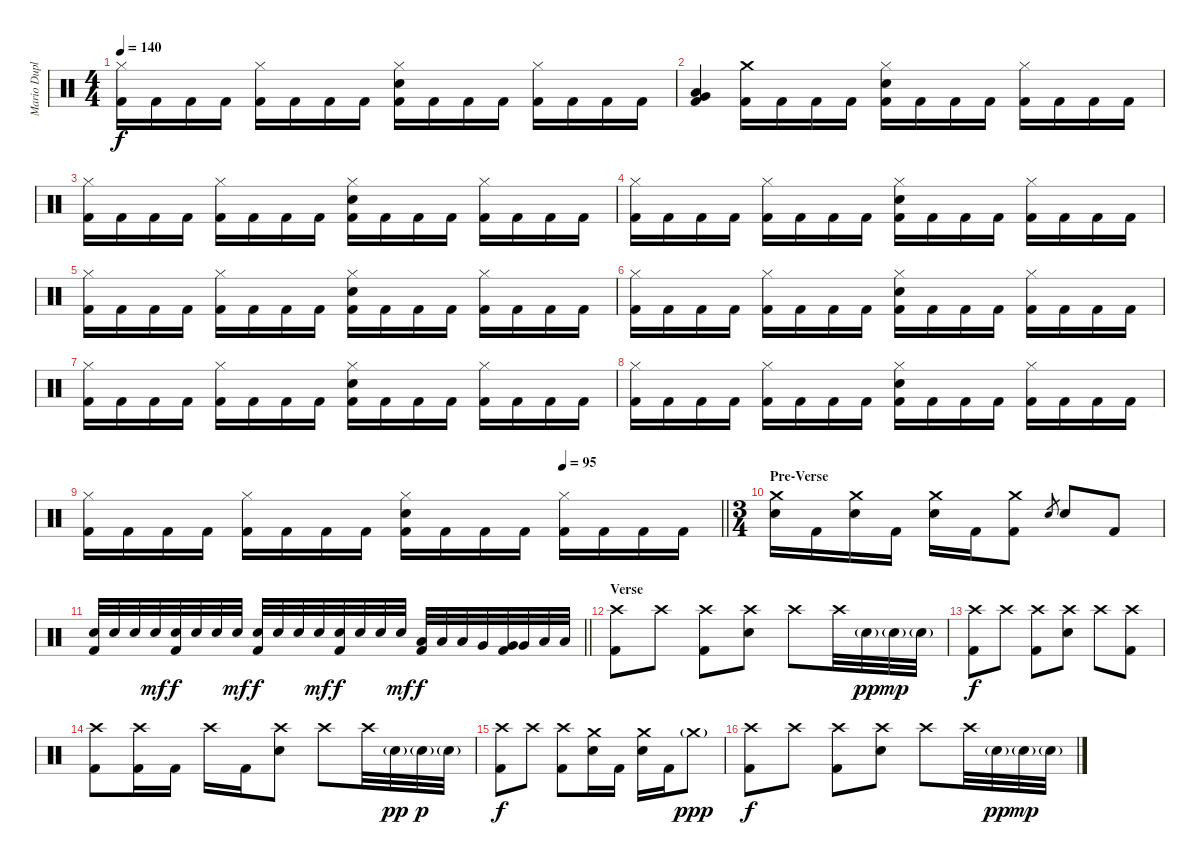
\track ("Mario Duplantier" "Mario Dupl") {instrument percussion}
\staff {score}
\articulation defaults
\ts (4 4)
\tempo 140
\clef neutral
\ks c
("Hi-Hat (closed)" "Kick (hit) 2").16{dy f} "Kick (hit) 2".16 "Kick (hit) 2".16 "Kick (hit) 2".16 ("Hi-Hat (closed)" "Kick (hit) 2").16 "Kick (hit) 2".16 "Kick (hit) 2".16 "Kick (hit) 2".16 ("Hi-Hat (closed)" "Snare (hit) 2" "Kick (hit) 2").16 "Kick (hit) 2".16 "Kick (hit) 2".16 "Kick (hit) 2".16 ("Hi-Hat (closed)" "Kick (hit) 2").16 "Kick (hit) 2".16 "Kick (hit) 2".16 "Kick (hit) 2".16 |
("Low Floor Tom (hit)" "Very Low Tom (hit)" "Kick (hit) 2").4 ("Crash medium (hit)" "Kick (hit) 2").16 "Kick (hit) 2".16 "Kick (hit) 2".16 "Kick (hit) 2".16 ("Hi-Hat (closed)" "Snare (hit) 2" "Kick (hit) 2").16 "Kick (hit) 2".16 "Kick (hit) 2".16 "Kick (hit) 2".16 ("Hi-Hat (closed)" "Kick (hit) 2").16 "Kick (hit) 2".16 "Kick (hit) 2".16 "Kick (hit) 2".16 |
("Hi-Hat (closed)" "Kick (hit) 2").16 "Kick (hit) 2".16 "Kick (hit) 2".16 "Kick (hit) 2".16 ("Hi-Hat (closed)" "Kick (hit) 2").16 "Kick (hit) 2".16 "Kick (hit) 2".16 "Kick (hit) 2".16 ("Hi-Hat (closed)" "Snare (hit) 2" "Kick (hit) 2").16 "Kick (hit) 2".16 "Kick (hit) 2".16 "Kick (hit) 2".16 ("Hi-Hat (closed)" "Kick (hit) 2").16 "Kick (hit) 2".16 "Kick (hit) 2".16 "Kick (hit) 2".16 |
("Hi-Hat (closed)" "Kick (hit) 2").16 "Kick (hit) 2".16 "Kick (hit) 2".16 "Kick (hit) 2".16 ("Hi-Hat (closed)" "Kick (hit) 2").16 "Kick (hit) 2".16 "Kick (hit) 2".16 "Kick (hit) 2".16 ("Hi-Hat (closed)" "Snare (hit) 2" "Kick (hit) 2").16 "Kick (hit) 2".16 "Kick (hit) 2".16 "Kick (hit) 2".16 ("Hi-Hat (closed)" "Kick (hit) 2").16 "Kick (hit) 2".16 "Kick (hit) 2".16 "Kick (hit) 2".16 |
("Hi-Hat (closed)" "Kick (hit) 2").16 "Kick (hit) 2".16 "Kick (hit) 2".16 "Kick (hit) 2".16 ("Hi-Hat (closed)" "Kick (hit) 2").16 "Kick (hit) 2".16 "Kick (hit) 2".16 "Kick (hit) 2".16 ("Hi-Hat (closed)" "Snare (hit) 2" "Kick (hit) 2").16 "Kick (hit) 2".16 "Kick (hit) 2".16 "Kick (hit) 2".16 ("Hi-Hat (closed)" "Kick (hit) 2").16 "Kick (hit) 2".16 "Kick (hit) 2".16 "Kick (hit) 2".16 |
("Hi-Hat (closed)" "Kick (hit) 2").16 "Kick (hit) 2".16 "Kick (hit) 2".16 "Kick (hit) 2".16 ("Hi-Hat (closed)" "Kick (hit) 2").16 "Kick (hit) 2".16 "Kick (hit) 2".16 "Kick (hit) 2".16 ("Hi-Hat (closed)" "Snare (hit) 2" "Kick (hit) 2").16 "Kick (hit) 2".16 "Kick (hit) 2".16 "Kick (hit) 2".16 ("Hi-Hat (closed)" "Kick (hit) 2").16 "Kick (hit) 2".16 "Kick (hit) 2".16 "Kick (hit) 2".16 |
("Hi-Hat (closed)" "Kick (hit) 2").16 "Kick (hit) 2".16 "Kick (hit) 2".16 "Kick (hit) 2".16 ("Hi-Hat (closed)" "Kick (hit) 2").16 "Kick (hit) 2".16 "Kick (hit) 2".16 "Kick (hit) 2".16 ("Hi-Hat (closed)" "Snare (hit) 2" "Kick (hit) 2").16 "Kick (hit) 2".16 "Kick (hit) 2".16 "Kick (hit) 2".16 ("Hi-Hat (closed)" "Kick (hit) 2").16 "Kick (hit) 2".16 "Kick (hit) 2".16 "Kick (hit) 2".16 |
("Hi-Hat (closed)" "Kick (hit) 2").16 "Kick (hit) 2".16 "Kick (hit) 2".16 "Kick (hit) 2".16 ("Hi-Hat (closed)" "Kick (hit) 2").16 "Kick (hit) 2".16 "Kick (hit) 2".16 "Kick (hit) 2".16 ("Hi-Hat (closed)" "Snare (hit) 2" "Kick (hit) 2").16 "Kick (hit) 2".16 "Kick (hit) 2".16 "Kick (hit) 2".16 ("Hi-Hat (closed)" "Kick (hit) 2").16 "Kick (hit) 2".16 "Kick (hit) 2".16 "Kick (hit) 2".16 |
\tempo (95 0.75)
\barLineRight lightlight
("Hi-Hat (closed)" "Kick (hit) 2").16 "Kick (hit) 2".16 "Kick (hit) 2".16 "Kick (hit) 2".16 ("Hi-Hat (closed)" "Kick (hit) 2").16 "Kick (hit) 2".16 "Kick (hit) 2".16 "Kick (hit) 2".16 ("Hi-Hat (closed)" "Snare (hit) 2" "Kick (hit) 2").16 "Kick (hit) 2".16 "Kick (hit) 2".16 "Kick (hit) 2".16 ("Hi-Hat (closed)" "Kick (hit) 2").16 "Kick (hit) 2".16 "Kick (hit) 2".16 "Kick (hit) 2".16 |
\ts (3 4)
\section ("" "Pre-Verse")
("Crash medium (hit)" "Snare (hit) 2").16 "Kick (hit) 2".16 ("Crash medium (hit)" "Snare (hit) 2").16 "Kick (hit) 2".16 ("Crash medium (hit)" "Snare (hit) 2").16 "Kick (hit) 2".16 ("Crash medium (hit)" "Kick (hit) 2").8 "Snare (hit) 2".8{gr} "Snare (hit) 2".8 "Kick (hit) 2".8 |
\barLineRight lightlight
("Snare (hit) 2" "Kick (hit) 2").32 "Snare (hit) 2".32 "Snare (hit) 2".32 "Snare (hit) 2".32{dy mf} ("Snare (hit) 2" "Kick (hit) 2").32{dy f} "Snare (hit) 2".32 "Snare (hit) 2".32 "Snare (hit) 2".32{dy mf} ("Snare (hit) 2" "Kick (hit) 2").32{dy f} "Snare (hit) 2".32 "Snare (hit) 2".32 "Snare (hit) 2".32{dy mf} ("Snare (hit) 2" "Kick (hit) 2").32{dy f} "Snare (hit) 2".32 "Snare (hit) 2".32 "Snare (hit) 2".32{dy mf} ("Low Tom (hit)" "Kick (hit) 2").32{dy f} "Low Tom (hit)".32 "Low Tom (hit)".32 "Very Low Tom (hit)".32 ("Very Low Tom (hit)" "Kick (hit) 2").32 "Very Low Tom (hit)".32 "Low Floor Tom (hit)".32 "Low Floor Tom (hit)".32 |
\section ("" "Verse")
("Crash high (hit)" "Kick (hit) 2").8 "Crash high (hit)".8 ("Crash high (hit)" "Kick (hit) 2").8 ("Crash high (hit)" "Snare (hit) 2").8 "Crash high (hit)".8 "Crash high (hit)".32 "Snare (hit) 2"{g}.32{dy pp} "Snare (hit) 2"{g}.32{dy mp} "Snare (hit) 2"{g}.32 |
("Crash high (hit)" "Kick (hit) 2").8{dy f} "Crash high (hit)".8 ("Crash high (hit)" "Kick (hit) 2").8 ("Crash high (hit)" "Snare (hit) 2").8 "Crash high (hit)".8 ("Crash high (hit)" "Kick (hit) 2").8 |
("Crash high (hit)" "Kick (hit) 2").8 ("Crash high (hit)" "Kick (hit) 2").16 "Kick (hit) 2".16 "Crash high (hit)".16 "Kick (hit) 2".16 ("Crash high (hit)" "Snare (hit) 2").8 "Crash high (hit)".8 "Crash high (hit)".32 "Snare (hit) 2"{g}.32{dy pp} "Snare (hit) 2"{g}.32{dy p} "Snare (hit) 2"{g}.32 |
("Crash high (hit)" "Kick (hit) 2").8{dy f} "Crash high (hit)".8 ("Crash high (hit)" "Kick (hit) 2").8 ("Crash medium (hit)" "Snare (hit) 2").16 "Kick (hit) 2".16 ("Crash medium (hit)" "Snare (hit) 2").16 "Kick (hit) 2".16 "Crash medium (hit)"{g}.8{dy ppp} |
("Crash high (hit)" "Kick (hit) 2").8{dy f} "Crash high (hit)".8 ("Crash high (hit)" "Kick (hit) 2").8 ("Crash high (hit)" "Snare (hit) 2").8 "Crash high (hit)".8 "Crash high (hit)".32 "Snare (hit) 2"{g}.32{dy pp} "Snare (hit) 2"{g}.32{dy mp} "Snare (hit) 2"{g}.32
